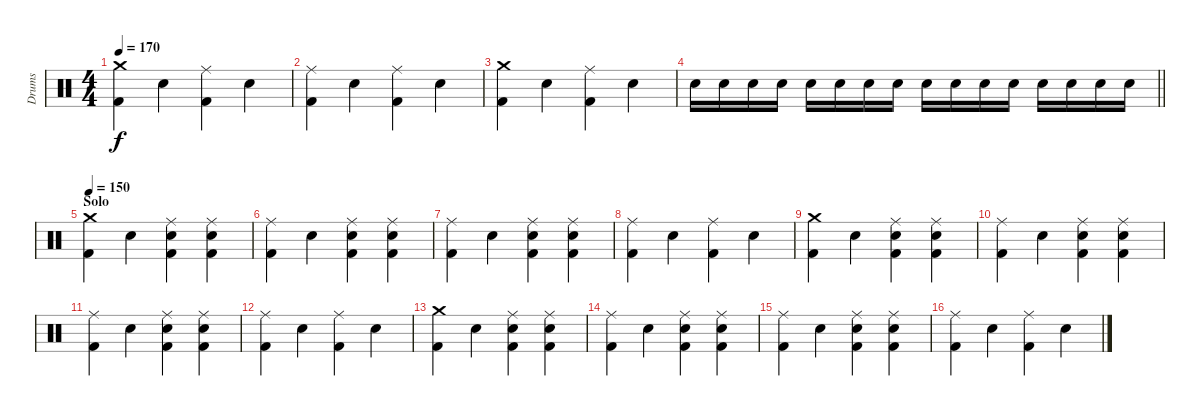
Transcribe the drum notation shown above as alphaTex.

\track ("Drums" "Drums") {instrument percussion}
\staff {score}
\articulation defaults
\ts (4 4)
\tempo 170
\clef neutral
\ks c
("Crash medium (hit)" "Kick (hit) 2").4{dy f} "Electric Snare (hit)".4 ("Ride (middle)" "Kick (hit) 2").4 "Electric Snare (hit)".4 |
("Ride (middle)" "Kick (hit) 2").4 "Electric Snare (hit)".4 ("Ride (middle)" "Kick (hit) 2").4 "Electric Snare (hit)".4 |
("Crash medium (hit)" "Kick (hit) 2").4 "Electric Snare (hit)".4 ("Ride (middle)" "Kick (hit) 2").4 "Electric Snare (hit)".4 |
\barLineRight lightlight "Snare (hit) 2".16 "Snare (hit) 2".16 "Snare (hit) 2".16 "Snare (hit) 2".16 "Snare (hit) 2".16 "Snare (hit) 2".16 "Snare (hit) 2".16 "Snare (hit) 2".16 "Snare (hit) 2".16 "Snare (hit) 2".16 "Snare (hit) 2".16 "Snare (hit) 2".16 "Snare (hit) 2".16 "Snare (hit) 2".16 "Snare (hit) 2".16 "Snare (hit) 2".16
|
\section ("" "Solo")
\tempo 150
("Crash medium (hit)" "Kick (hit) 2").4 "Electric Snare (hit)".4 ("Ride (middle)" "Electric Snare (hit)" "Kick (hit) 2").4 ("Ride (middle)" "Electric Snare (hit)" "Kick (hit) 2").4 |
("Ride (middle)" "Kick (hit) 2").4 "Electric Snare (hit)".4 ("Ride (middle)" "Electric Snare (hit)" "Kick (hit) 2").4 ("Ride (middle)" "Electric Snare (hit)" "Kick (hit) 2").4 |
("Ride (middle)" "Kick (hit) 2").4 "Electric Snare (hit)".4 ("Ride (middle)" "Electric Snare (hit)" "Kick (hit) 2").4 ("Ride (middle)" "Electric Snare (hit)" "Kick (hit) 2").4 |
("Ride (middle)" "Kick (hit) 2").4 "Electric Snare (hit)".4 ("Ride (middle)" "Kick (hit) 2").4 "Electric Snare (hit)".4 |
("Crash medium (hit)" "Kick (hit) 2").4 "Electric Snare (hit)".4 ("Ride (middle)" "Electric Snare (hit)" "Kick (hit) 2").4 ("Ride (middle)" "Electric Snare (hit)" "Kick (hit) 2").4 |
("Ride (middle)" "Kick (hit) 2").4 "Electric Snare (hit)".4 ("Ride (middle)" "Electric Snare (hit)" "Kick (hit) 2").4 ("Ride (middle)" "Electric Snare (hit)" "Kick (hit) 2").4 |
("Ride (middle)" "Kick (hit) 2").4 "Electric Snare (hit)".4 ("Ride (middle)" "Electric Snare (hit)" "Kick (hit) 2").4 ("Ride (middle)" "Electric Snare (hit)" "Kick (hit) 2").4 |
("Ride (middle)" "Kick (hit) 2").4 "Electric Snare (hit)".4 ("Ride (middle)" "Kick (hit) 2").4 "Electric Snare (hit)".4 |
("Crash medium (hit)" "Kick (hit) 2").4 "Electric Snare (hit)".4 ("Ride (middle)" "Electric Snare (hit)" "Kick (hit) 2").4 ("Ride (middle)" "Electric Snare (hit)" "Kick (hit) 2").4 |
("Ride (middle)" "Kick (hit) 2").4 "Electric Snare (hit)".4 ("Ride (middle)" "Electric Snare (hit)" "Kick (hit) 2").4 ("Ride (middle)" "Electric Snare (hit)" "Kick (hit) 2").4 |
("Ride (middle)" "Kick (hit) 2").4 "Electric Snare (hit)".4 ("Ride (middle)" "Electric Snare (hit)" "Kick (hit) 2").4 ("Ride (middle)" "Electric Snare (hit)" "Kick (hit) 2").4 |
("Ride (middle)" "Kick (hit) 2").4 "Electric Snare (hit)".4 ("Ride (middle)" "Kick (hit) 2").4 "Electric Snare (hit)".4
